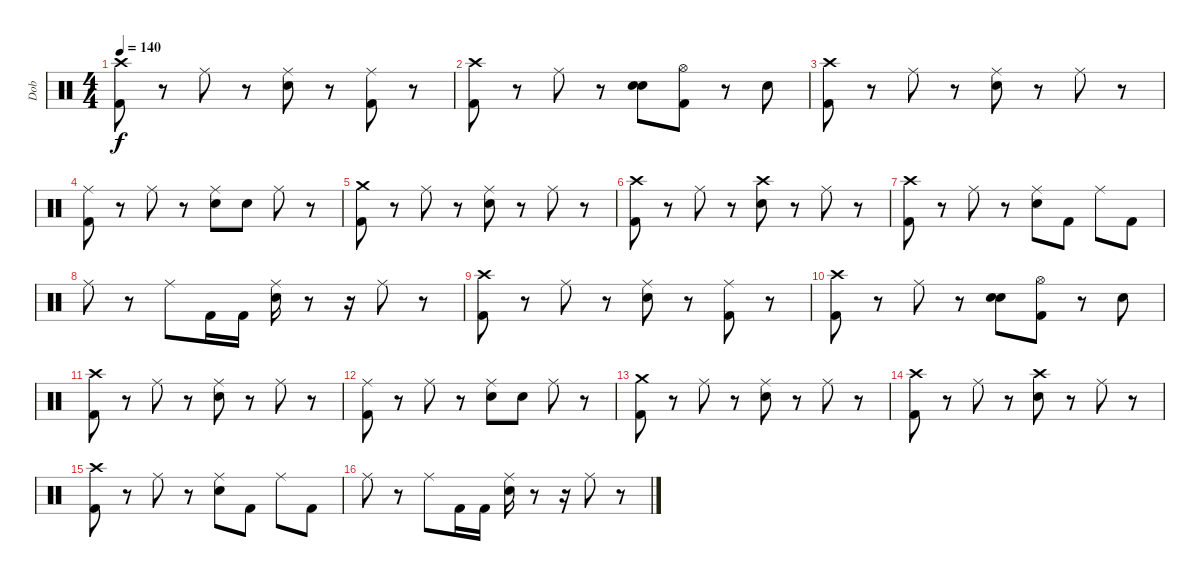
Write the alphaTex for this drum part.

\track ("Dob" "Dob") {instrument percussion}
\staff {score}
\articulation defaults
\ts (4 4)
\tempo 140
\clef neutral
\ks c
("Crash high (hit)" "Kick (hit) 2").8{dy f} r.8 "Ride (middle)".8 r.8 ("Ride (middle)" "Electric Snare (hit)").8 r.8 ("Ride (middle)" "Kick (hit) 2").8 r.8 |
("Crash high (hit)" "Kick (hit) 2").8 r.8 "Ride (middle)".8 r.8 ("Electric Snare (hit)" "Electric Snare (hit)").8{bd 480} ("Hi-Hat (open)" "Kick (hit) 2").8 r.8 "Electric Snare (hit)".8 |
("Crash high (hit)" "Kick (hit) 2").8 r.8 "Ride (middle)".8 r.8 ("Ride (middle)" "Electric Snare (hit)").8 r.8 "Ride (middle)".8 r.8 |
("Ride (middle)" "Kick (hit) 2").8 r.8 "Ride (middle)".8 r.8 ("Ride (middle)" "Electric Snare (hit)").8 "Electric Snare (hit)".8 "Ride (middle)".8 r.8 |
("Crash medium (hit)" "Kick (hit) 2").8 r.8 "Ride (middle)".8 r.8 ("Ride (middle)" "Electric Snare (hit)").8 r.8 "Ride (middle)".8 r.8 |
("Crash high (hit)" "Kick (hit) 2").8 r.8 "Ride (middle)".8 r.8 ("Crash high (hit)" "Electric Snare (hit)").8 r.8 "Ride (middle)".8 r.8 |
("Crash high (hit)" "Kick (hit) 2").8 r.8 "Ride (middle)".8 r.8 ("Electric Snare (hit)" "Ride (middle)").8 "Kick (hit) 2".8 "Ride (middle)".8 "Kick (hit) 2".8 |
"Ride (middle)".8 r.8 "Ride (middle)".8 "Kick (hit) 2".16 "Kick (hit) 2".16 ("Ride (middle)" "Electric Snare (hit)").16 r.8 r.16 "Ride (middle)".8 r.8 |
("Crash high (hit)" "Kick (hit) 2").8 r.8 "Ride (middle)".8 r.8 ("Ride (middle)" "Electric Snare (hit)").8 r.8 ("Ride (middle)" "Kick (hit) 2").8 r.8 |
("Crash high (hit)" "Kick (hit) 2").8 r.8 "Ride (middle)".8 r.8 ("Electric Snare (hit)" "Electric Snare (hit)").8{bd 480} ("Hi-Hat (open)" "Kick (hit) 2").8 r.8 "Electric Snare (hit)".8 |
("Crash high (hit)" "Kick (hit) 2").8 r.8 "Ride (middle)".8 r.8 ("Ride (middle)" "Electric Snare (hit)").8 r.8 "Ride (middle)".8 r.8 |
("Ride (middle)" "Kick (hit) 2").8 r.8 "Ride (middle)".8 r.8 ("Ride (middle)" "Electric Snare (hit)").8 "Electric Snare (hit)".8 "Ride (middle)".8 r.8 |
("Crash medium (hit)" "Kick (hit) 2").8 r.8 "Ride (middle)".8 r.8 ("Ride (middle)" "Electric Snare (hit)").8 r.8 "Ride (middle)".8 r.8 |
("Crash high (hit)" "Kick (hit) 2").8 r.8 "Ride (middle)".8 r.8 ("Crash high (hit)" "Electric Snare (hit)").8 r.8 "Ride (middle)".8 r.8 |
("Crash high (hit)" "Kick (hit) 2").8 r.8 "Ride (middle)".8 r.8 ("Electric Snare (hit)" "Ride (middle)").8 "Kick (hit) 2".8 "Ride (middle)".8 "Kick (hit) 2".8 |
"Ride (middle)".8 r.8 "Ride (middle)".8 "Kick (hit) 2".16 "Kick (hit) 2".16 ("Ride (middle)" "Electric Snare (hit)").16 r.8 r.16 "Ride (middle)".8 r.8
